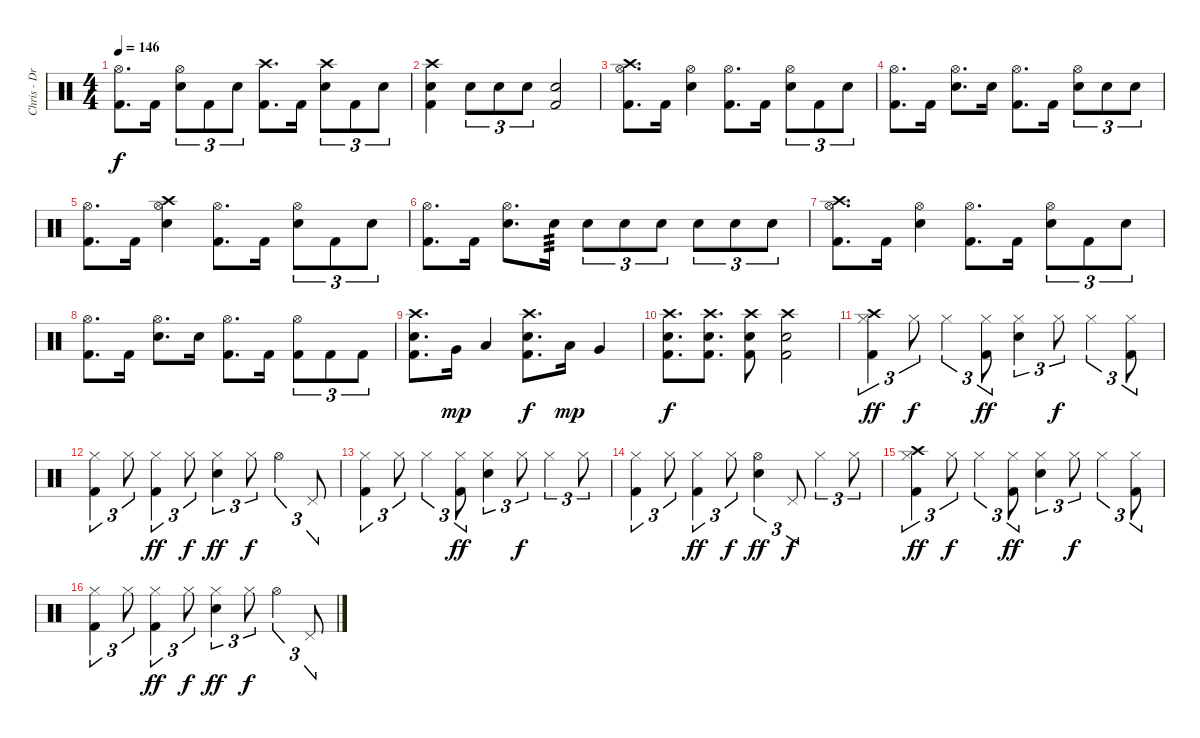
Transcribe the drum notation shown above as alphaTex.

\track ("Chris - Drums" "Chris - Dr") {instrument percussion}
\staff {score}
\articulation defaults
\ts (4 4)
\tempo 146
\clef neutral
\ks c
("Hi-Hat (open)" "Kick (hit) 2").8{d dy f} "Kick (hit) 2".16 ("Hi-Hat (open)" "Electric Snare (hit)").8{tu (3 2)} "Kick (hit) 2".8{tu (3 2)} "Electric Snare (hit)".8{tu (3 2)} ("Crash high (hit)" "Kick (hit) 2").8{d} "Kick (hit) 2".16 ("Crash high (hit)" "Electric Snare (hit)").8{tu (3 2)} "Kick (hit) 2".8{tu (3 2)} "Electric Snare (hit)".8{tu (3 2)} |
("Crash high (hit)" "Electric Snare (hit)" "Kick (hit) 2").4 "Electric Snare (hit)".8{tu (3 2)} "Electric Snare (hit)".8{tu (3 2)} "Electric Snare (hit)".8{tu (3 2)} ("Electric Snare (hit)" "Kick (hit) 2").2 |
("Crash high (hit)" "Hi-Hat (open)" "Kick (hit) 2").8{d} "Kick (hit) 2".16 ("Hi-Hat (open)" "Electric Snare (hit)").4 ("Hi-Hat (open)" "Kick (hit) 2").8{d} "Kick (hit) 2".16 ("Hi-Hat (open)" "Electric Snare (hit)").8{tu (3 2)} "Kick (hit) 2".8{tu (3 2)} "Electric Snare (hit)".8{tu (3 2)} |
("Hi-Hat (open)" "Kick (hit) 2").8{d} "Kick (hit) 2".16 ("Hi-Hat (open)" "Electric Snare (hit)").8{d} "Electric Snare (hit)".16 ("Hi-Hat (open)" "Kick (hit) 2").8{d} "Kick (hit) 2".16 ("Hi-Hat (open)" "Electric Snare (hit)").8{tu (3 2)} "Electric Snare (hit)".8{tu (3 2)} "Electric Snare (hit)".8{tu (3 2)} |
("Hi-Hat (open)" "Kick (hit) 2").8{d} "Kick (hit) 2".16 ("Crash high (hit)" "Hi-Hat (open)" "Electric Snare (hit)").4 ("Hi-Hat (open)" "Kick (hit) 2").8{d} "Kick (hit) 2".16 ("Hi-Hat (open)" "Electric Snare (hit)").8{tu (3 2)} "Kick (hit) 2".8{tu (3 2)} "Electric Snare (hit)".8{tu (3 2)} |
("Hi-Hat (open)" "Kick (hit) 2").8{d} "Kick (hit) 2".16 ("Hi-Hat (open)" "Electric Snare (hit)").8{d} "Electric Snare (hit)".16{tp 3} "Electric Snare (hit)".8{tu (3 2)} "Electric Snare (hit)".8{tu (3 2)} "Electric Snare (hit)".8{tu (3 2)} "Electric Snare (hit)".8{tu (3 2)} "Electric Snare (hit)".8{tu (3 2)} "Electric Snare (hit)".8{tu (3 2)} |
("Crash high (hit)" "Hi-Hat (open)" "Kick (hit) 2").8{d} "Kick (hit) 2".16 ("Hi-Hat (open)" "Electric Snare (hit)").4 ("Hi-Hat (open)" "Kick (hit) 2").8{d} "Kick (hit) 2".16 ("Hi-Hat (open)" "Electric Snare (hit)").8{tu (3 2)} "Kick (hit) 2".8{tu (3 2)} "Electric Snare (hit)".8{tu (3 2)} |
("Hi-Hat (open)" "Kick (hit) 2").8{d} "Kick (hit) 2".16 ("Hi-Hat (open)" "Electric Snare (hit)").8{d} "Electric Snare (hit)".16 ("Hi-Hat (open)" "Kick (hit) 2").8{d} "Kick (hit) 2".16 ("Hi-Hat (open)" "Kick (hit) 2").8{tu (3 2)} "Kick (hit) 2".8{tu (3 2)} "Kick (hit) 2".8{tu (3 2)} |
("Crash high (hit)" "Electric Snare (hit)" "Kick (hit) 2").8{d} "Very Low Tom (hit)".16{dy mp} "Low Floor Tom (hit)".4 ("Crash high (hit)" "Electric Snare (hit)" "Kick (hit) 2").8{d dy f} "Low Tom (hit)".16{dy mp} "Very Low Tom (hit)".4 |
("Crash high (hit)" "Electric Snare (hit)" "Kick (hit) 2").8{d dy f} ("Crash high (hit)" "Electric Snare (hit)" "Kick (hit) 2").8{d} ("Crash high (hit)" "Electric Snare (hit)" "Kick (hit) 2").8 ("Crash high (hit)" "Electric Snare (hit)" "Kick (hit) 2").2 |
("Crash high (hit)" "Hi-Hat (closed)" "Kick (hit) 2").4{tu (3 2) dy ff} "Hi-Hat (closed)".8{tu (3 2) dy f} "Hi-Hat (closed)".4{tu (3 2)} ("Hi-Hat (closed)" "Kick (hit) 2").8{tu (3 2) dy ff} ("Hi-Hat (closed)" "Electric Snare (hit)").4{tu (3 2)} "Hi-Hat (closed)".8{tu (3 2) dy f} "Hi-Hat (closed)".4{tu (3 2)} ("Hi-Hat (closed)" "Kick (hit) 2").8{tu (3 2)} |
("Hi-Hat (closed)" "Kick (hit) 2").4{tu (3 2)} "Hi-Hat (closed)".8{tu (3 2)} ("Hi-Hat (closed)" "Kick (hit) 2").4{tu (3 2) dy ff} "Hi-Hat (closed)".8{tu (3 2) dy f} ("Hi-Hat (closed)" "Electric Snare (hit)").4{tu (3 2) dy ff} "Hi-Hat (closed)".8{tu (3 2) dy f} "Hi-Hat (open)".4{tu (3 2)} "Pedal Hi-Hat (hit)".8{tu (3 2)} |
("Hi-Hat (closed)" "Kick (hit) 2").4{tu (3 2)} "Hi-Hat (closed)".8{tu (3 2)} "Hi-Hat (closed)".4{tu (3 2)} ("Hi-Hat (closed)" "Kick (hit) 2").8{tu (3 2) dy ff} ("Hi-Hat (closed)" "Electric Snare (hit)").4{tu (3 2)} "Hi-Hat (closed)".8{tu (3 2) dy f} "Hi-Hat (closed)".4{tu (3 2)} "Hi-Hat (closed)".8{tu (3 2)} |
("Hi-Hat (closed)" "Kick (hit) 2").4{tu (3 2)} "Hi-Hat (closed)".8{tu (3 2)} ("Hi-Hat (closed)" "Kick (hit) 2").4{tu (3 2) dy ff} "Hi-Hat (closed)".8{tu (3 2) dy f} ("Hi-Hat (open)" "Electric Snare (hit)").4{tu (3 2) dy ff} "Pedal Hi-Hat (hit)".8{tu (3 2) dy f} "Hi-Hat (closed)".4{tu (3 2)} "Hi-Hat (closed)".8{tu (3 2)} |
("Crash high (hit)" "Hi-Hat (closed)" "Kick (hit) 2").4{tu (3 2) dy ff} "Hi-Hat (closed)".8{tu (3 2) dy f} "Hi-Hat (closed)".4{tu (3 2)} ("Hi-Hat (closed)" "Kick (hit) 2").8{tu (3 2) dy ff} ("Hi-Hat (closed)" "Electric Snare (hit)").4{tu (3 2)} "Hi-Hat (closed)".8{tu (3 2) dy f} "Hi-Hat (closed)".4{tu (3 2)} ("Hi-Hat (closed)" "Kick (hit) 2").8{tu (3 2)} |
("Hi-Hat (closed)" "Kick (hit) 2").4{tu (3 2)} "Hi-Hat (closed)".8{tu (3 2)} ("Hi-Hat (closed)" "Kick (hit) 2").4{tu (3 2) dy ff} "Hi-Hat (closed)".8{tu (3 2) dy f} ("Hi-Hat (closed)" "Electric Snare (hit)").4{tu (3 2) dy ff} "Hi-Hat (closed)".8{tu (3 2) dy f} "Hi-Hat (open)".4{tu (3 2)} "Pedal Hi-Hat (hit)".8{tu (3 2)}
